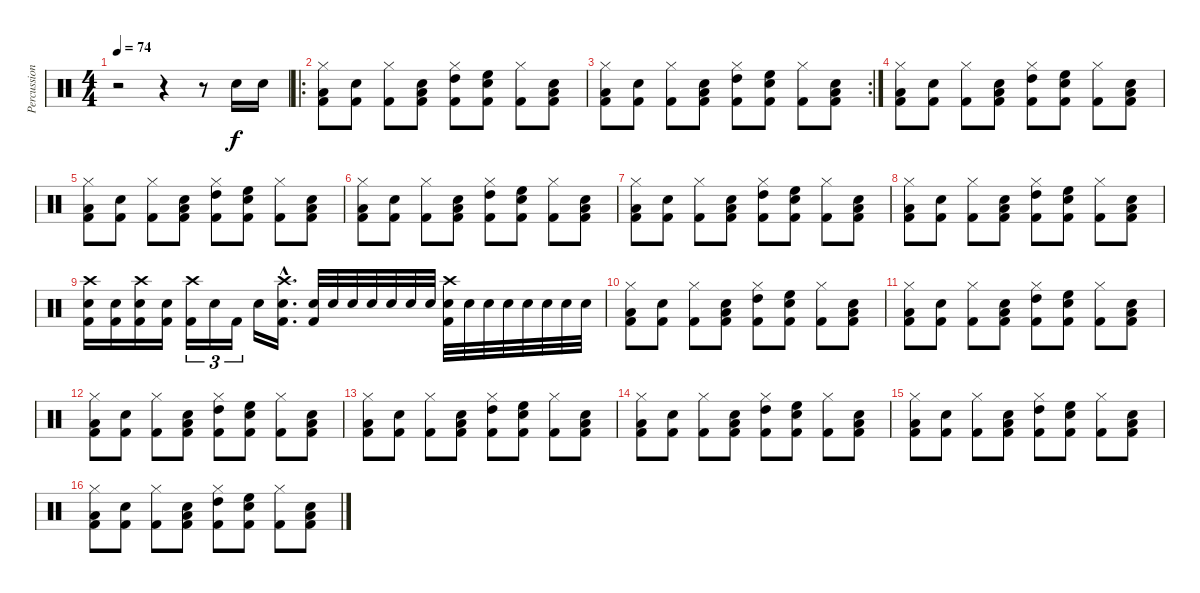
\track ("Percussion" "Percussion") {instrument percussion}
\staff {score}
\articulation defaults
\ts (4 4)
\tempo 74
\clef neutral
\ks c
r.2{dy f} r.4 r.8 "Snare (hit) 2".16 "Snare (hit) 2".16 |
\ro
("Hi-Hat (closed)" "Low Tom (hit)" "Kick (hit) 2").8 ("Snare (hit) 2" "Kick (hit) 2").8 ("Hi-Hat (closed)" "Kick (hit) 2").8 ("Snare (hit) 2" "Low Tom (hit)" "Kick (hit) 2").8 ("Hi-Hat (closed)" "High Tom (hit)" "Kick (hit) 2").8 ("Snare (hit) 2" "High Floor Tom (hit)" "Kick (hit) 2").8 ("Hi-Hat (closed)" "Kick (hit) 2").8 ("Snare (hit) 2" "Low Tom (hit)" "Kick (hit) 2").8 |
\rc 2
("Hi-Hat (closed)" "Low Tom (hit)" "Kick (hit) 2").8 ("Snare (hit) 2" "Kick (hit) 2").8 ("Hi-Hat (closed)" "Kick (hit) 2").8 ("Snare (hit) 2" "Low Tom (hit)" "Kick (hit) 2").8 ("Hi-Hat (closed)" "High Tom (hit)" "Kick (hit) 2").8 ("Snare (hit) 2" "High Floor Tom (hit)" "Kick (hit) 2").8 ("Hi-Hat (closed)" "Kick (hit) 2").8 ("Snare (hit) 2" "Low Tom (hit)" "Kick (hit) 2").8 |
("Hi-Hat (closed)" "Low Tom (hit)" "Kick (hit) 2").8 ("Snare (hit) 2" "Kick (hit) 2").8 ("Hi-Hat (closed)" "Kick (hit) 2").8 ("Snare (hit) 2" "Low Tom (hit)" "Kick (hit) 2").8 ("Hi-Hat (closed)" "High Tom (hit)" "Kick (hit) 2").8 ("Snare (hit) 2" "High Floor Tom (hit)" "Kick (hit) 2").8 ("Hi-Hat (closed)" "Kick (hit) 2").8 ("Snare (hit) 2" "Low Tom (hit)" "Kick (hit) 2").8 |
("Hi-Hat (closed)" "Low Tom (hit)" "Kick (hit) 2").8 ("Snare (hit) 2" "Kick (hit) 2").8 ("Hi-Hat (closed)" "Kick (hit) 2").8 ("Snare (hit) 2" "Low Tom (hit)" "Kick (hit) 2").8 ("Hi-Hat (closed)" "High Tom (hit)" "Kick (hit) 2").8 ("Snare (hit) 2" "High Floor Tom (hit)" "Kick (hit) 2").8 ("Hi-Hat (closed)" "Kick (hit) 2").8 ("Snare (hit) 2" "Low Tom (hit)" "Kick (hit) 2").8 |
("Hi-Hat (closed)" "Low Tom (hit)" "Kick (hit) 2").8 ("Snare (hit) 2" "Kick (hit) 2").8 ("Hi-Hat (closed)" "Kick (hit) 2").8 ("Snare (hit) 2" "Low Tom (hit)" "Kick (hit) 2").8 ("Hi-Hat (closed)" "High Tom (hit)" "Kick (hit) 2").8 ("Snare (hit) 2" "High Floor Tom (hit)" "Kick (hit) 2").8 ("Hi-Hat (closed)" "Kick (hit) 2").8 ("Snare (hit) 2" "Low Tom (hit)" "Kick (hit) 2").8 |
("Hi-Hat (closed)" "Low Tom (hit)" "Kick (hit) 2").8 ("Snare (hit) 2" "Kick (hit) 2").8 ("Hi-Hat (closed)" "Kick (hit) 2").8 ("Snare (hit) 2" "Low Tom (hit)" "Kick (hit) 2").8 ("Hi-Hat (closed)" "High Tom (hit)" "Kick (hit) 2").8 ("Snare (hit) 2" "High Floor Tom (hit)" "Kick (hit) 2").8 ("Hi-Hat (closed)" "Kick (hit) 2").8 ("Snare (hit) 2" "Low Tom (hit)" "Kick (hit) 2").8 |
("Hi-Hat (closed)" "Low Tom (hit)" "Kick (hit) 2").8 ("Snare (hit) 2" "Kick (hit) 2").8 ("Hi-Hat (closed)" "Kick (hit) 2").8 ("Snare (hit) 2" "Low Tom (hit)" "Kick (hit) 2").8 ("Hi-Hat (closed)" "High Tom (hit)" "Kick (hit) 2").8 ("Snare (hit) 2" "High Floor Tom (hit)" "Kick (hit) 2").8 ("Hi-Hat (closed)" "Kick (hit) 2").8 ("Snare (hit) 2" "Low Tom (hit)" "Kick (hit) 2").8 |
("Crash high (hit)" "Snare (hit) 2" "Kick (hit) 2").16 ("Snare (hit) 2" "Kick (hit) 2").16 ("Crash high (hit)" "Snare (hit) 2" "Kick (hit) 2").16 ("Snare (hit) 2" "Kick (hit) 2").16 ("Crash high (hit)" "Kick (hit) 2").16{tu (3 2)} "Snare (hit) 2".16{tu (3 2)} "Kick (hit) 2".16{tu (3 2)} "Snare (hit) 2".16 ("Crash high (hit)"{hac} "Snare (hit) 2"{hac} "Kick (hit) 2"{hac}).16{d} ("Snare (hit) 2" "Kick (hit) 2").32 "Snare (hit) 2".32 "Snare (hit) 2".32 "Snare (hit) 2".32 "Snare (hit) 2".32 "Snare (hit) 2".32 "Snare (hit) 2".32 ("Crash high (hit)" "Snare (hit) 2" "Kick (hit) 2").32 "Snare (hit) 2".32 "Snare (hit) 2".32 "Snare (hit) 2".32 "Snare (hit) 2".32 "Snare (hit) 2".32 "Snare (hit) 2".32 "Snare (hit) 2".32 |
("Hi-Hat (closed)" "Low Tom (hit)" "Kick (hit) 2").8 ("Snare (hit) 2" "Kick (hit) 2").8 ("Hi-Hat (closed)" "Kick (hit) 2").8 ("Snare (hit) 2" "Low Tom (hit)" "Kick (hit) 2").8 ("Hi-Hat (closed)" "High Tom (hit)" "Kick (hit) 2").8 ("Snare (hit) 2" "High Floor Tom (hit)" "Kick (hit) 2").8 ("Hi-Hat (closed)" "Kick (hit) 2").8 ("Snare (hit) 2" "Low Tom (hit)" "Kick (hit) 2").8 |
("Hi-Hat (closed)" "Low Tom (hit)" "Kick (hit) 2").8 ("Snare (hit) 2" "Kick (hit) 2").8 ("Hi-Hat (closed)" "Kick (hit) 2").8 ("Snare (hit) 2" "Low Tom (hit)" "Kick (hit) 2").8 ("Hi-Hat (closed)" "High Tom (hit)" "Kick (hit) 2").8 ("Snare (hit) 2" "High Floor Tom (hit)" "Kick (hit) 2").8 ("Hi-Hat (closed)" "Kick (hit) 2").8 ("Snare (hit) 2" "Low Tom (hit)" "Kick (hit) 2").8 |
("Hi-Hat (closed)" "Low Tom (hit)" "Kick (hit) 2").8 ("Snare (hit) 2" "Kick (hit) 2").8 ("Hi-Hat (closed)" "Kick (hit) 2").8 ("Snare (hit) 2" "Low Tom (hit)" "Kick (hit) 2").8 ("Hi-Hat (closed)" "High Tom (hit)" "Kick (hit) 2").8 ("Snare (hit) 2" "High Floor Tom (hit)" "Kick (hit) 2").8 ("Hi-Hat (closed)" "Kick (hit) 2").8 ("Snare (hit) 2" "Low Tom (hit)" "Kick (hit) 2").8 |
("Hi-Hat (closed)" "Low Tom (hit)" "Kick (hit) 2").8 ("Snare (hit) 2" "Kick (hit) 2").8 ("Hi-Hat (closed)" "Kick (hit) 2").8 ("Snare (hit) 2" "Low Tom (hit)" "Kick (hit) 2").8 ("Hi-Hat (closed)" "High Tom (hit)" "Kick (hit) 2").8 ("Snare (hit) 2" "High Floor Tom (hit)" "Kick (hit) 2").8 ("Hi-Hat (closed)" "Kick (hit) 2").8 ("Snare (hit) 2" "Low Tom (hit)" "Kick (hit) 2").8 |
("Hi-Hat (closed)" "Low Tom (hit)" "Kick (hit) 2").8 ("Snare (hit) 2" "Kick (hit) 2").8 ("Hi-Hat (closed)" "Kick (hit) 2").8 ("Snare (hit) 2" "Low Tom (hit)" "Kick (hit) 2").8 ("Hi-Hat (closed)" "High Tom (hit)" "Kick (hit) 2").8 ("Snare (hit) 2" "High Floor Tom (hit)" "Kick (hit) 2").8 ("Hi-Hat (closed)" "Kick (hit) 2").8 ("Snare (hit) 2" "Low Tom (hit)" "Kick (hit) 2").8 |
("Hi-Hat (closed)" "Low Tom (hit)" "Kick (hit) 2").8 ("Snare (hit) 2" "Kick (hit) 2").8 ("Hi-Hat (closed)" "Kick (hit) 2").8 ("Snare (hit) 2" "Low Tom (hit)" "Kick (hit) 2").8 ("Hi-Hat (closed)" "High Tom (hit)" "Kick (hit) 2").8 ("Snare (hit) 2" "High Floor Tom (hit)" "Kick (hit) 2").8 ("Hi-Hat (closed)" "Kick (hit) 2").8 ("Snare (hit) 2" "Low Tom (hit)" "Kick (hit) 2").8 |
("Hi-Hat (closed)" "Low Tom (hit)" "Kick (hit) 2").8 ("Snare (hit) 2" "Kick (hit) 2").8 ("Hi-Hat (closed)" "Kick (hit) 2").8 ("Snare (hit) 2" "Low Tom (hit)" "Kick (hit) 2").8 ("Hi-Hat (closed)" "High Tom (hit)" "Kick (hit) 2").8 ("Snare (hit) 2" "High Floor Tom (hit)" "Kick (hit) 2").8 ("Hi-Hat (closed)" "Kick (hit) 2").8 ("Snare (hit) 2" "Low Tom (hit)" "Kick (hit) 2").8
